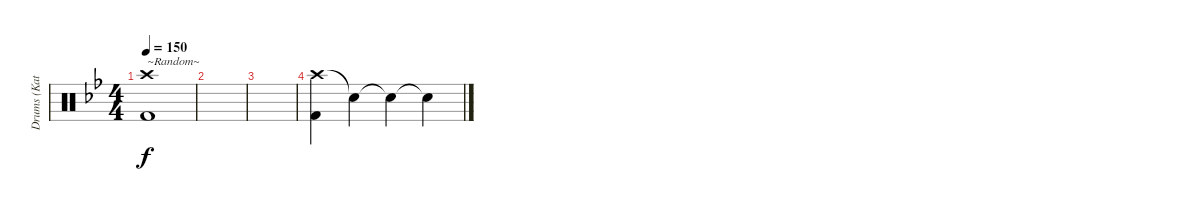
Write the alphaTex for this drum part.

\track ("Drums (Katsuji)" "Drums (Kat") {instrument percussion}
\staff {score}
\articulation defaults
\ts (4 4)
\tempo 150
\clef neutral
\ks bb
("Crash high (hit)" "Kick (hit) 2").1{txt "~Random~" dy f} |
|
|
("Crash high (hit)" "Kick (hit) 2").4 "Snare (hit)"{t}.4 "Snare (hit)"{t}.4 "Snare (hit)"{t}.4
